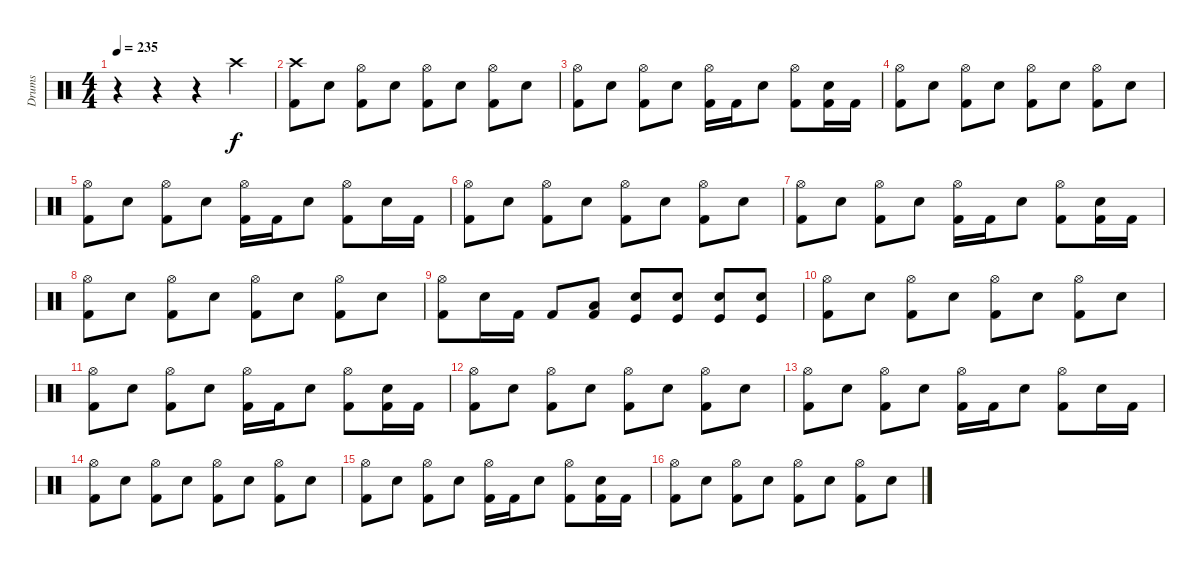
\track ("Drums" "Drums") {instrument percussion}
\staff {score}
\articulation defaults
\ts (4 4)
\tempo 235
\clef neutral
\ks c
r.4{dy f} r.4 r.4{volume 0} "Crash high (hit)".4{volume 13} |
("Crash high (hit)" "Kick (hit) 2").8 "Snare (hit) 2".8 ("Hi-Hat (open)" "Kick (hit) 2").8 "Snare (hit) 2".8 ("Hi-Hat (open)" "Kick (hit) 2").8 "Snare (hit) 2".8 ("Hi-Hat (open)" "Kick (hit) 2").8 "Snare (hit) 2".8 |
("Hi-Hat (open)" "Kick (hit) 2").8 "Snare (hit) 2".8 ("Hi-Hat (open)" "Kick (hit) 2").8 "Snare (hit) 2".8 ("Hi-Hat (open)" "Kick (hit) 2").16 "Kick (hit) 2".16 "Snare (hit) 2".8 ("Hi-Hat (open)" "Kick (hit) 2").8 ("Snare (hit) 2" "Kick (hit) 2").16 "Kick (hit) 2".16 |
("Hi-Hat (open)" "Kick (hit) 2").8 "Snare (hit) 2".8 ("Hi-Hat (open)" "Kick (hit) 2").8 "Snare (hit) 2".8 ("Hi-Hat (open)" "Kick (hit) 2").8 "Snare (hit) 2".8 ("Hi-Hat (open)" "Kick (hit) 2").8 "Snare (hit) 2".8 |
("Hi-Hat (open)" "Kick (hit) 2").8 "Snare (hit) 2".8 ("Hi-Hat (open)" "Kick (hit) 2").8 "Snare (hit) 2".8 ("Hi-Hat (open)" "Kick (hit) 2").16 "Kick (hit) 2".16 "Snare (hit) 2".8 ("Hi-Hat (open)" "Kick (hit) 2").8 "Snare (hit) 2".16 "Kick (hit) 2".16 |
("Hi-Hat (open)" "Kick (hit) 2").8 "Snare (hit) 2".8 ("Hi-Hat (open)" "Kick (hit) 2").8 "Snare (hit) 2".8 ("Hi-Hat (open)" "Kick (hit) 2").8 "Snare (hit) 2".8 ("Hi-Hat (open)" "Kick (hit) 2").8 "Snare (hit) 2".8 |
("Hi-Hat (open)" "Kick (hit) 2").8 "Snare (hit) 2".8 ("Hi-Hat (open)" "Kick (hit) 2").8 "Snare (hit) 2".8 ("Hi-Hat (open)" "Kick (hit) 2").16 "Kick (hit) 2".16 "Snare (hit) 2".8 ("Hi-Hat (open)" "Kick (hit) 2").8 ("Snare (hit) 2" "Kick (hit) 2").16 "Kick (hit) 2".16 |
("Hi-Hat (open)" "Kick (hit) 2").8 "Snare (hit) 2".8 ("Hi-Hat (open)" "Kick (hit) 2").8 "Snare (hit) 2".8 ("Hi-Hat (open)" "Kick (hit) 2").8 "Snare (hit) 2".8 ("Hi-Hat (open)" "Kick (hit) 2").8 "Snare (hit) 2".8 |
("Hi-Hat (open)" "Kick (hit) 2").8 "Snare (hit) 2".16 "Kick (hit) 2".16 "Kick (hit) 2".8 ("Low Tom (hit)" "Kick (hit) 2").8 ("Snare (hit) 2" "Kick (hit)").8 ("Snare (hit) 2" "Kick (hit)").8 ("Snare (hit) 2" "Kick (hit)").8 ("Snare (hit) 2" "Kick (hit)").8 |
("Hi-Hat (open)" "Kick (hit) 2").8 "Snare (hit) 2".8 ("Hi-Hat (open)" "Kick (hit) 2").8 "Snare (hit) 2".8 ("Hi-Hat (open)" "Kick (hit) 2").8 "Snare (hit) 2".8 ("Hi-Hat (open)" "Kick (hit) 2").8 "Snare (hit) 2".8 |
("Hi-Hat (open)" "Kick (hit) 2").8 "Snare (hit) 2".8 ("Hi-Hat (open)" "Kick (hit) 2").8 "Snare (hit) 2".8 ("Hi-Hat (open)" "Kick (hit) 2").16 "Kick (hit) 2".16 "Snare (hit) 2".8 ("Hi-Hat (open)" "Kick (hit) 2").8 ("Snare (hit) 2" "Kick (hit) 2").16 "Kick (hit) 2".16 |
("Hi-Hat (open)" "Kick (hit) 2").8 "Snare (hit) 2".8 ("Hi-Hat (open)" "Kick (hit) 2").8 "Snare (hit) 2".8 ("Hi-Hat (open)" "Kick (hit) 2").8 "Snare (hit) 2".8 ("Hi-Hat (open)" "Kick (hit) 2").8 "Snare (hit) 2".8 |
("Hi-Hat (open)" "Kick (hit) 2").8 "Snare (hit) 2".8 ("Hi-Hat (open)" "Kick (hit) 2").8 "Snare (hit) 2".8 ("Hi-Hat (open)" "Kick (hit) 2").16 "Kick (hit) 2".16 "Snare (hit) 2".8 ("Hi-Hat (open)" "Kick (hit) 2").8 "Snare (hit) 2".16 "Kick (hit) 2".16 |
("Hi-Hat (open)" "Kick (hit) 2").8 "Snare (hit) 2".8 ("Hi-Hat (open)" "Kick (hit) 2").8 "Snare (hit) 2".8 ("Hi-Hat (open)" "Kick (hit) 2").8 "Snare (hit) 2".8 ("Hi-Hat (open)" "Kick (hit) 2").8 "Snare (hit) 2".8 |
("Hi-Hat (open)" "Kick (hit) 2").8 "Snare (hit) 2".8 ("Hi-Hat (open)" "Kick (hit) 2").8 "Snare (hit) 2".8 ("Hi-Hat (open)" "Kick (hit) 2").16 "Kick (hit) 2".16 "Snare (hit) 2".8 ("Hi-Hat (open)" "Kick (hit) 2").8 ("Snare (hit) 2" "Kick (hit) 2").16 "Kick (hit) 2".16 |
("Hi-Hat (open)" "Kick (hit) 2").8 "Snare (hit) 2".8 ("Hi-Hat (open)" "Kick (hit) 2").8 "Snare (hit) 2".8 ("Hi-Hat (open)" "Kick (hit) 2").8 "Snare (hit) 2".8 ("Hi-Hat (open)" "Kick (hit) 2").8 "Snare (hit) 2".8
